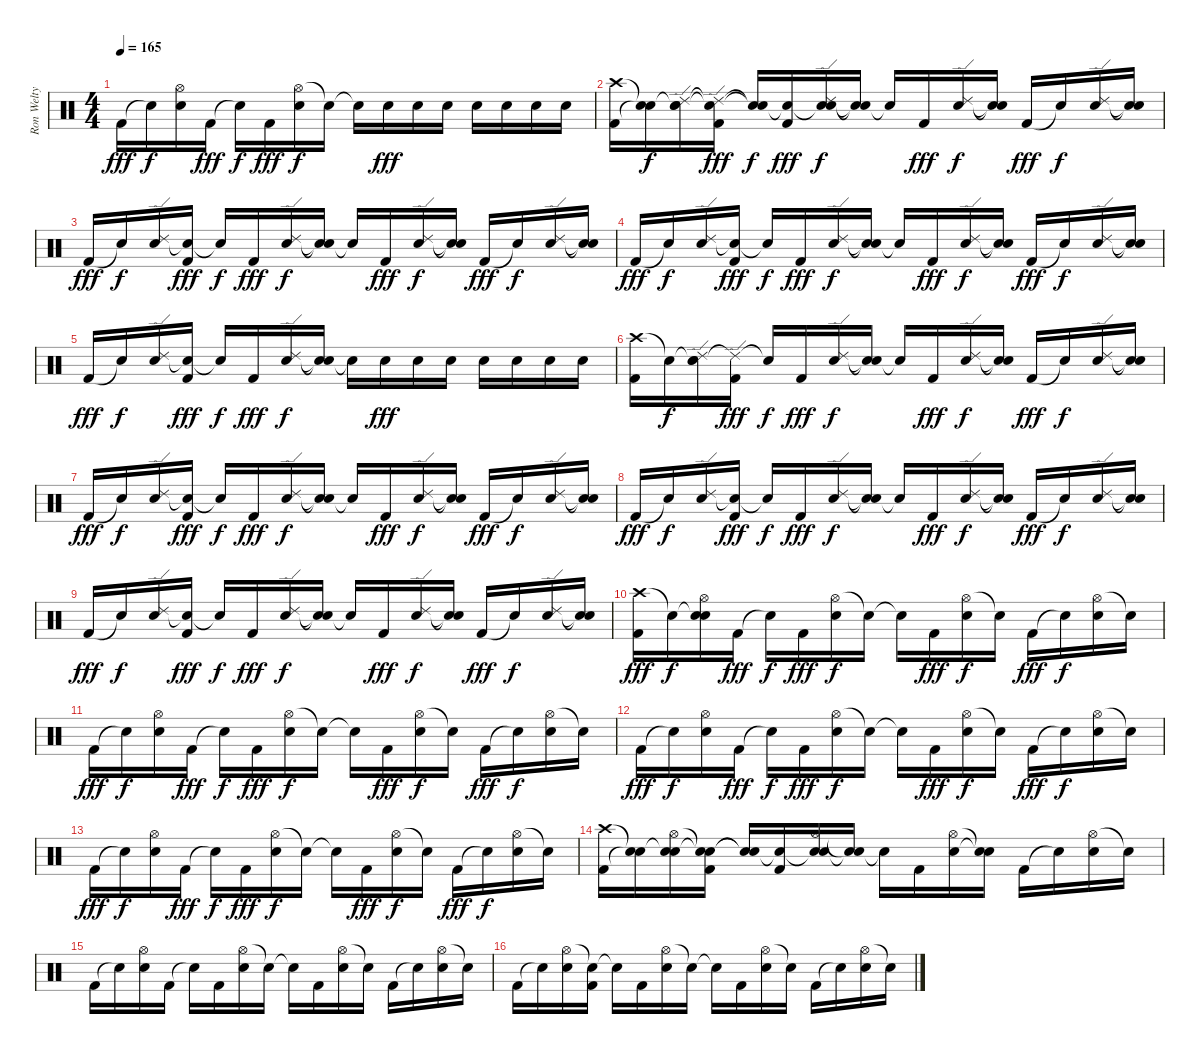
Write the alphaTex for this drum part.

\track ("Ron Welty" "Ron Welty") {instrument percussion}
\staff {score}
\articulation defaults
\ts (4 4)
\tempo 165
\clef neutral
\ks c "Kick (hit) 2".16{dy fff} "Snare (hit)"{t}.16{dy f}
("Hi-Hat (open)" "Electric Snare (hit)").16 "Kick (hit) 2".16{dy fff} "Snare (hit)"{t}.16{dy f} "Kick (hit) 2".16{dy fff} ("Hi-Hat (open)" "Electric Snare (hit)").16{dy f} "Snare (hit)"{t}.16 "Snare (hit)"{t}.16 "Snare (hit) 2".16{dy fff} "Snare (hit) 2".16 "Snare (hit) 2".16 "Electric Snare (hit)".16 "Electric Snare (hit)".16 "Snare (hit) 2".16 "Snare (hit) 2".16 |
("Crash high (hit)" "Kick (hit) 2").16 ("Snare (hit)"{t} "Snare (hit)"{t}).16{dy f} ("Snare (hit)"{t} "Ride (edge) 2" "Electric Snare (hit)").16 ("Snare (hit)"{t} "Ride (edge) 2"{t} "Kick (hit) 2").16{dy fff} ("Snare (hit)"{t} "Snare (hit)"{t}).16{dy f} ("Snare (hit)"{t} "Kick (hit) 2").16{dy fff} ("Snare (hit)"{t} "Ride (edge) 2" "Electric Snare (hit)").16{dy f} ("Snare (hit)"{t} "Snare (hit)"{t}).16 "Snare (hit)"{t}.16 "Kick (hit) 2".16{dy fff} ("Ride (edge) 2" "Electric Snare (hit)").16{dy f} ("Snare (hit)"{t} "Snare (hit)"{t}).16 "Kick (hit) 2".16{dy fff} "Snare (hit)"{t}.16{dy f} ("Ride (edge) 2" "Electric Snare (hit)").16 ("Snare (hit)"{t} "Snare (hit)"{t}).16 |
"Kick (hit) 2".16{dy fff} "Snare (hit)"{t}.16{dy f} ("Ride (edge) 2" "Electric Snare (hit)").16 ("Snare (hit)"{t} "Kick (hit) 2").16{dy fff} "Snare (hit)"{t}.16{dy f} "Kick (hit) 2".16{dy fff} ("Ride (edge) 2" "Electric Snare (hit)").16{dy f} ("Snare (hit)"{t} "Snare (hit)"{t}).16 "Snare (hit)"{t}.16 "Kick (hit) 2".16{dy fff} ("Ride (edge) 2" "Electric Snare (hit)").16{dy f} ("Snare (hit)"{t} "Snare (hit)"{t}).16 "Kick (hit) 2".16{dy fff} "Snare (hit)"{t}.16{dy f} ("Ride (edge) 2" "Electric Snare (hit)").16 ("Snare (hit)"{t} "Snare (hit)"{t}).16 |
"Kick (hit) 2".16{dy fff} "Snare (hit)"{t}.16{dy f} ("Ride (edge) 2" "Electric Snare (hit)").16 ("Snare (hit)"{t} "Kick (hit) 2").16{dy fff} "Snare (hit)"{t}.16{dy f} "Kick (hit) 2".16{dy fff} ("Ride (edge) 2" "Electric Snare (hit)").16{dy f} ("Snare (hit)"{t} "Snare (hit)"{t}).16 "Snare (hit)"{t}.16 "Kick (hit) 2".16{dy fff} ("Ride (edge) 2" "Electric Snare (hit)").16{dy f} ("Snare (hit)"{t} "Snare (hit)"{t}).16 "Kick (hit) 2".16{dy fff} "Snare (hit)"{t}.16{dy f} ("Ride (edge) 2" "Electric Snare (hit)").16 ("Snare (hit)"{t} "Snare (hit)"{t}).16 |
"Kick (hit) 2".16{dy fff} "Snare (hit)"{t}.16{dy f} ("Ride (edge) 2" "Electric Snare (hit)").16 ("Snare (hit)"{t} "Kick (hit) 2").16{dy fff} "Snare (hit)"{t}.16{dy f} "Kick (hit) 2".16{dy fff} ("Ride (edge) 2" "Electric Snare (hit)").16{dy f} ("Snare (hit)"{t} "Snare (hit)"{t}).16 "Snare (hit)"{t}.16 "Electric Snare (hit)".16{dy fff} "Electric Snare (hit)".16 "Electric Snare (hit)".16 "Snare (hit) 2".16 "Snare (hit) 2".16 "Snare (hit) 2".16 "Snare (hit) 2".16 |
("Crash high (hit)" "Kick (hit) 2").16 "Snare (hit)"{t}.16{dy f} ("Snare (hit)"{t} "Ride (edge) 2" "Electric Snare (hit)").16 ("Ride (edge) 2"{t} "Kick (hit) 2").16{dy fff} "Snare (hit)"{t}.16{dy f} "Kick (hit) 2".16{dy fff} ("Ride (edge) 2" "Electric Snare (hit)").16{dy f} ("Snare (hit)"{t} "Snare (hit)"{t}).16 "Snare (hit)"{t}.16 "Kick (hit) 2".16{dy fff} ("Ride (edge) 2" "Electric Snare (hit)").16{dy f} ("Snare (hit)"{t} "Snare (hit)"{t}).16 "Kick (hit) 2".16{dy fff} "Snare (hit)"{t}.16{dy f} ("Ride (edge) 2" "Electric Snare (hit)").16 ("Snare (hit)"{t} "Snare (hit)"{t}).16 |
"Kick (hit) 2".16{dy fff} "Snare (hit)"{t}.16{dy f} ("Ride (edge) 2" "Electric Snare (hit)").16 ("Snare (hit)"{t} "Kick (hit) 2").16{dy fff} "Snare (hit)"{t}.16{dy f} "Kick (hit) 2".16{dy fff} ("Ride (edge) 2" "Electric Snare (hit)").16{dy f} ("Snare (hit)"{t} "Snare (hit)"{t}).16 "Snare (hit)"{t}.16 "Kick (hit) 2".16{dy fff} ("Ride (edge) 2" "Electric Snare (hit)").16{dy f} ("Snare (hit)"{t} "Snare (hit)"{t}).16 "Kick (hit) 2".16{dy fff} "Snare (hit)"{t}.16{dy f} ("Ride (edge) 2" "Electric Snare (hit)").16 ("Snare (hit)"{t} "Snare (hit)"{t}).16 |
"Kick (hit) 2".16{dy fff} "Snare (hit)"{t}.16{dy f} ("Ride (edge) 2" "Electric Snare (hit)").16 ("Snare (hit)"{t} "Kick (hit) 2").16{dy fff} "Snare (hit)"{t}.16{dy f} "Kick (hit) 2".16{dy fff} ("Ride (edge) 2" "Electric Snare (hit)").16{dy f} ("Snare (hit)"{t} "Snare (hit)"{t}).16 "Snare (hit)"{t}.16 "Kick (hit) 2".16{dy fff} ("Ride (edge) 2" "Electric Snare (hit)").16{dy f} ("Snare (hit)"{t} "Snare (hit)"{t}).16 "Kick (hit) 2".16{dy fff} "Snare (hit)"{t}.16{dy f} ("Ride (edge) 2" "Electric Snare (hit)").16 ("Snare (hit)"{t} "Snare (hit)"{t}).16 |
"Kick (hit) 2".16{dy fff} "Snare (hit)"{t}.16{dy f} ("Ride (edge) 2" "Electric Snare (hit)").16 ("Snare (hit)"{t} "Kick (hit) 2").16{dy fff} "Snare (hit)"{t}.16{dy f} "Kick (hit) 2".16{dy fff} ("Ride (edge) 2" "Electric Snare (hit)").16{dy f} ("Snare (hit)"{t} "Snare (hit)"{t}).16 "Snare (hit)"{t}.16 "Kick (hit) 2".16{dy fff} ("Ride (edge) 2" "Electric Snare (hit)").16{dy f} ("Snare (hit)"{t} "Snare (hit)"{t}).16 "Kick (hit) 2".16{dy fff} "Snare (hit)"{t}.16{dy f} ("Ride (edge) 2" "Electric Snare (hit)").16 ("Snare (hit)"{t} "Snare (hit)"{t}).16 |
("Crash high (hit)" "Kick (hit) 2").16{dy fff} "Snare (hit)"{t}.16{dy f} ("Snare (hit)"{t} "Hi-Hat (open)" "Electric Snare (hit)").16 "Kick (hit) 2".16{dy fff} "Snare (hit)"{t}.16{dy f} "Kick (hit) 2".16{dy fff} ("Hi-Hat (open)" "Electric Snare (hit)").16{dy f} "Snare (hit)"{t}.16 "Snare (hit)"{t}.16 "Kick (hit) 2".16{dy fff} ("Hi-Hat (open)" "Electric Snare (hit)").16{dy f} "Snare (hit)"{t}.16 "Kick (hit) 2".16{dy fff} "Snare (hit)"{t}.16{dy f} ("Hi-Hat (open)" "Electric Snare (hit)").16 "Snare (hit)"{t}.16 |
"Kick (hit) 2".16{dy fff} "Snare (hit)"{t}.16{dy f} ("Hi-Hat (open)" "Electric Snare (hit)").16 "Kick (hit) 2".16{dy fff} "Snare (hit)"{t}.16{dy f} "Kick (hit) 2".16{dy fff} ("Hi-Hat (open)" "Electric Snare (hit)").16{dy f} "Snare (hit)"{t}.16 "Snare (hit)"{t}.16 "Kick (hit) 2".16{dy fff} ("Hi-Hat (open)" "Electric Snare (hit)").16{dy f} "Snare (hit)"{t}.16 "Kick (hit) 2".16{dy fff} "Snare (hit)"{t}.16{dy f} ("Hi-Hat (open)" "Electric Snare (hit)").16 "Snare (hit)"{t}.16 |
"Kick (hit) 2".16{dy fff} "Snare (hit)"{t}.16{dy f} ("Hi-Hat (open)" "Electric Snare (hit)").16 "Kick (hit) 2".16{dy fff} "Snare (hit)"{t}.16{dy f} "Kick (hit) 2".16{dy fff} ("Hi-Hat (open)" "Electric Snare (hit)").16{dy f} "Snare (hit)"{t}.16 "Snare (hit)"{t}.16 "Kick (hit) 2".16{dy fff} ("Hi-Hat (open)" "Electric Snare (hit)").16{dy f} "Snare (hit)"{t}.16 "Kick (hit) 2".16{dy fff} "Snare (hit)"{t}.16{dy f} ("Hi-Hat (open)" "Electric Snare (hit)").16 "Snare (hit)"{t}.16 |
"Kick (hit) 2".16{dy fff} "Snare (hit)"{t}.16{dy f} ("Hi-Hat (open)" "Electric Snare (hit)").16 "Kick (hit) 2".16{dy fff} "Snare (hit)"{t}.16{dy f} "Kick (hit) 2".16{dy fff} ("Hi-Hat (open)" "Electric Snare (hit)").16{dy f} "Snare (hit)"{t}.16 "Snare (hit)"{t}.16 "Kick (hit) 2".16{dy fff} ("Hi-Hat (open)" "Electric Snare (hit)").16{dy f} "Snare (hit)"{t}.16 "Kick (hit) 2".16{dy fff} "Snare (hit)"{t}.16{dy f} ("Hi-Hat (open)" "Electric Snare (hit)").16 "Snare (hit)"{t}.16 |
("Crash high (hit)" "Kick (hit) 2").16 ("Snare (hit)"{t} "Snare (hit)"{t}).16 ("Snare (hit)"{t} "Hi-Hat (open)" "Electric Snare (hit)").16 ("Snare (hit)"{t} "Snare (hit)"{t} "Kick (hit) 2").16 ("Snare (hit)"{t} "Snare (hit)"{t}).16 ("Snare (hit)"{t} "Kick (hit) 2").16 ("Snare (hit)"{t} "Hi-Hat (open)" "Electric Snare (hit)").16 ("Snare (hit)"{t} "Snare (hit)"{t}).16 "Snare (hit)"{t}.16 "Kick (hit) 2".16 ("Hi-Hat (open)" "Electric Snare (hit)").16 ("Snare (hit)"{t} "Snare (hit)"{t}).16 "Kick (hit) 2".16 "Snare (hit)"{t}.16 ("Hi-Hat (open)" "Electric Snare (hit)").16 "Snare (hit)"{t}.16 |
"Kick (hit) 2".16 "Snare (hit)"{t}.16 ("Hi-Hat (open)" "Electric Snare (hit)").16 "Kick (hit) 2".16 "Snare (hit)"{t}.16 "Kick (hit) 2".16 ("Hi-Hat (open)" "Electric Snare (hit)").16 "Snare (hit)"{t}.16 "Snare (hit)"{t}.16 "Kick (hit) 2".16 ("Hi-Hat (open)" "Electric Snare (hit)").16 "Snare (hit)"{t}.16 "Kick (hit) 2".16 "Snare (hit)"{t}.16 ("Hi-Hat (open)" "Electric Snare (hit)").16 "Snare (hit)"{t}.16 |
"Kick (hit) 2".16 "Snare (hit)"{t}.16 ("Hi-Hat (open)" "Electric Snare (hit)").16 ("Snare (hit)"{t} "Kick (hit) 2").16 "Snare (hit)"{t}.16 "Kick (hit) 2".16 ("Hi-Hat (open)" "Electric Snare (hit)").16 "Snare (hit)"{t}.16 "Snare (hit)"{t}.16 "Kick (hit) 2".16 ("Hi-Hat (open)" "Electric Snare (hit)").16 "Snare (hit)"{t}.16 "Kick (hit) 2".16 "Snare (hit)"{t}.16 ("Hi-Hat (open)" "Electric Snare (hit)").16 "Snare (hit)"{t}.16
